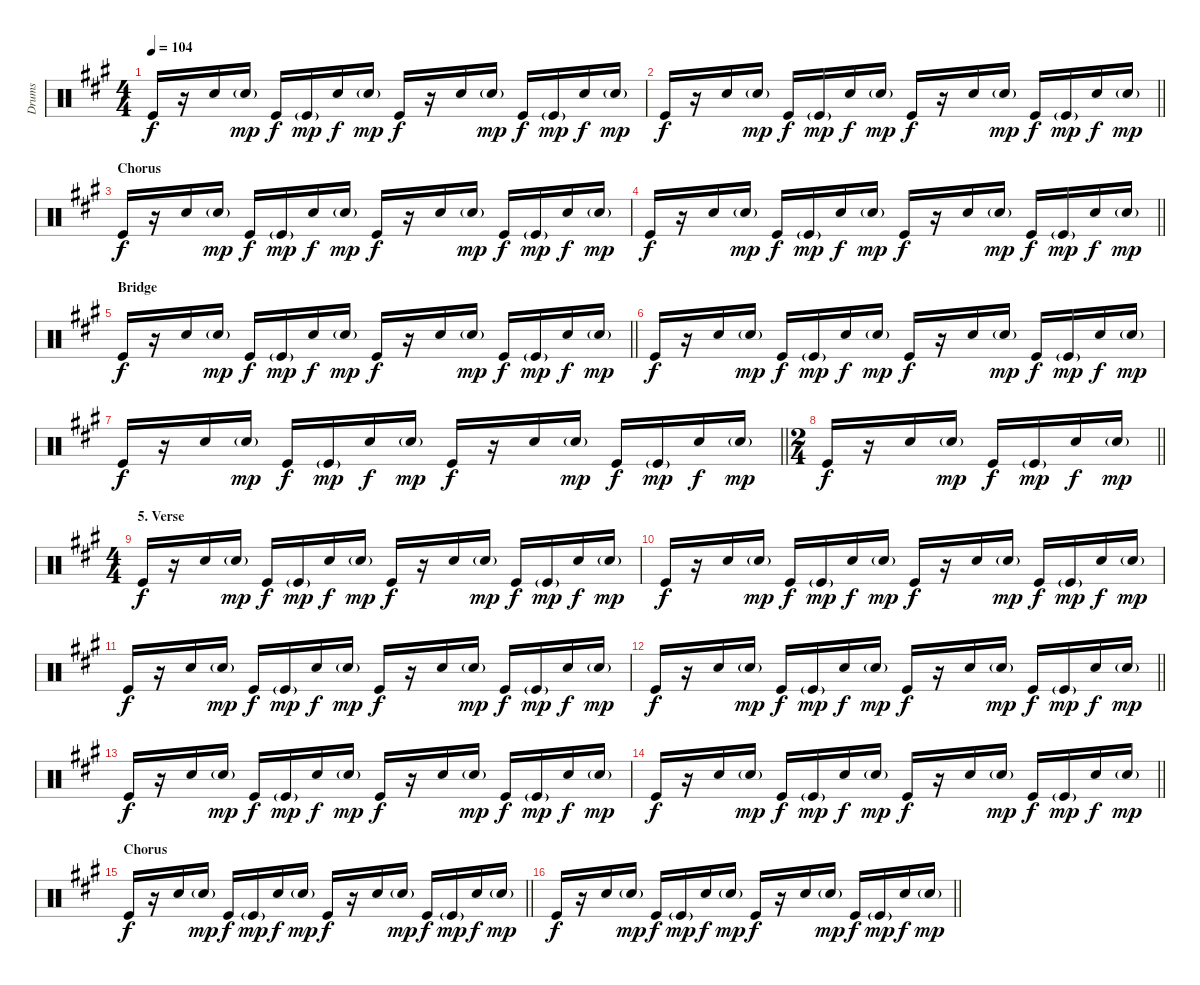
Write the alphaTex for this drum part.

\track ("Drums" "Drums") {instrument percussion}
\staff {score}
\articulation defaults
\ts (4 4)
\tempo 104
\clef neutral
\ks a "Kick (hit)".16{dy f}
r.16 "Electric Snare (hit)".16 "Electric Snare (hit)"{g}.16{dy mp} "Kick (hit)".16{dy f} "Kick (hit)"{g}.16{dy mp} "Electric Snare (hit)".16{dy f} "Electric Snare (hit)"{g}.16{dy mp} "Kick (hit)".16{dy f} r.16 "Electric Snare (hit)".16 "Electric Snare (hit)"{g}.16{dy mp} "Kick (hit)".16{dy f} "Kick (hit)"{g}.16{dy mp} "Electric Snare (hit)".16{dy f} "Electric Snare (hit)"{g}.16{dy mp} |
\barLineRight lightlight "Kick (hit)".16{dy f}
r.16 "Electric Snare (hit)".16 "Electric Snare (hit)"{g}.16{dy mp} "Kick (hit)".16{dy f} "Kick (hit)"{g}.16{dy mp} "Electric Snare (hit)".16{dy f} "Electric Snare (hit)"{g}.16{dy mp} "Kick (hit)".16{dy f} r.16 "Electric Snare (hit)".16 "Electric Snare (hit)"{g}.16{dy mp} "Kick (hit)".16{dy f} "Kick (hit)"{g}.16{dy mp} "Electric Snare (hit)".16{dy f} "Electric Snare (hit)"{g}.16{dy mp} |
\section ("" "Chorus")
"Kick (hit)".16{dy f} r.16 "Electric Snare (hit)".16 "Electric Snare (hit)"{g}.16{dy mp} "Kick (hit)".16{dy f} "Kick (hit)"{g}.16{dy mp} "Electric Snare (hit)".16{dy f} "Electric Snare (hit)"{g}.16{dy mp} "Kick (hit)".16{dy f} r.16 "Electric Snare (hit)".16 "Electric Snare (hit)"{g}.16{dy mp} "Kick (hit)".16{dy f} "Kick (hit)"{g}.16{dy mp} "Electric Snare (hit)".16{dy f} "Electric Snare (hit)"{g}.16{dy mp} |
\barLineRight lightlight "Kick (hit)".16{dy f}
r.16 "Electric Snare (hit)".16 "Electric Snare (hit)"{g}.16{dy mp} "Kick (hit)".16{dy f} "Kick (hit)"{g}.16{dy mp} "Electric Snare (hit)".16{dy f} "Electric Snare (hit)"{g}.16{dy mp} "Kick (hit)".16{dy f} r.16 "Electric Snare (hit)".16 "Electric Snare (hit)"{g}.16{dy mp} "Kick (hit)".16{dy f} "Kick (hit)"{g}.16{dy mp} "Electric Snare (hit)".16{dy f} "Electric Snare (hit)"{g}.16{dy mp} |
\section ("" "Bridge")
\barLineRight lightlight "Kick (hit)".16{dy f}
r.16 "Electric Snare (hit)".16 "Electric Snare (hit)"{g}.16{dy mp} "Kick (hit)".16{dy f} "Kick (hit)"{g}.16{dy mp} "Electric Snare (hit)".16{dy f} "Electric Snare (hit)"{g}.16{dy mp} "Kick (hit)".16{dy f} r.16 "Electric Snare (hit)".16 "Electric Snare (hit)"{g}.16{dy mp} "Kick (hit)".16{dy f} "Kick (hit)"{g}.16{dy mp} "Electric Snare (hit)".16{dy f} "Electric Snare (hit)"{g}.16{dy mp} |
"Kick (hit)".16{dy f} r.16 "Electric Snare (hit)".16 "Electric Snare (hit)"{g}.16{dy mp} "Kick (hit)".16{dy f} "Kick (hit)"{g}.16{dy mp} "Electric Snare (hit)".16{dy f} "Electric Snare (hit)"{g}.16{dy mp} "Kick (hit)".16{dy f} r.16 "Electric Snare (hit)".16 "Electric Snare (hit)"{g}.16{dy mp} "Kick (hit)".16{dy f} "Kick (hit)"{g}.16{dy mp} "Electric Snare (hit)".16{dy f} "Electric Snare (hit)"{g}.16{dy mp} |
\barLineRight lightlight "Kick (hit)".16{dy f}
r.16 "Electric Snare (hit)".16 "Electric Snare (hit)"{g}.16{dy mp} "Kick (hit)".16{dy f} "Kick (hit)"{g}.16{dy mp} "Electric Snare (hit)".16{dy f} "Electric Snare (hit)"{g}.16{dy mp} "Kick (hit)".16{dy f} r.16 "Electric Snare (hit)".16 "Electric Snare (hit)"{g}.16{dy mp} "Kick (hit)".16{dy f} "Kick (hit)"{g}.16{dy mp} "Electric Snare (hit)".16{dy f} "Electric Snare (hit)"{g}.16{dy mp} |
\ts (2 4)
\barLineRight lightlight "Kick (hit)".16{dy f}
r.16 "Electric Snare (hit)".16 "Electric Snare (hit)"{g}.16{dy mp} "Kick (hit)".16{dy f} "Kick (hit)"{g}.16{dy mp} "Electric Snare (hit)".16{dy f} "Electric Snare (hit)"{g}.16{dy mp} |
\ts (4 4)
\section ("" "5. Verse")
"Kick (hit)".16{dy f} r.16 "Electric Snare (hit)".16 "Electric Snare (hit)"{g}.16{dy mp} "Kick (hit)".16{dy f} "Kick (hit)"{g}.16{dy mp} "Electric Snare (hit)".16{dy f} "Electric Snare (hit)"{g}.16{dy mp} "Kick (hit)".16{dy f} r.16 "Electric Snare (hit)".16 "Electric Snare (hit)"{g}.16{dy mp} "Kick (hit)".16{dy f} "Kick (hit)"{g}.16{dy mp} "Electric Snare (hit)".16{dy f} "Electric Snare (hit)"{g}.16{dy mp} |
"Kick (hit)".16{dy f} r.16 "Electric Snare (hit)".16 "Electric Snare (hit)"{g}.16{dy mp} "Kick (hit)".16{dy f} "Kick (hit)"{g}.16{dy mp} "Electric Snare (hit)".16{dy f} "Electric Snare (hit)"{g}.16{dy mp} "Kick (hit)".16{dy f} r.16 "Electric Snare (hit)".16 "Electric Snare (hit)"{g}.16{dy mp} "Kick (hit)".16{dy f} "Kick (hit)"{g}.16{dy mp} "Electric Snare (hit)".16{dy f} "Electric Snare (hit)"{g}.16{dy mp} |
"Kick (hit)".16{dy f} r.16 "Electric Snare (hit)".16 "Electric Snare (hit)"{g}.16{dy mp} "Kick (hit)".16{dy f} "Kick (hit)"{g}.16{dy mp} "Electric Snare (hit)".16{dy f} "Electric Snare (hit)"{g}.16{dy mp} "Kick (hit)".16{dy f} r.16 "Electric Snare (hit)".16 "Electric Snare (hit)"{g}.16{dy mp} "Kick (hit)".16{dy f} "Kick (hit)"{g}.16{dy mp} "Electric Snare (hit)".16{dy f} "Electric Snare (hit)"{g}.16{dy mp} |
\barLineRight lightlight "Kick (hit)".16{dy f}
r.16 "Electric Snare (hit)".16 "Electric Snare (hit)"{g}.16{dy mp} "Kick (hit)".16{dy f} "Kick (hit)"{g}.16{dy mp} "Electric Snare (hit)".16{dy f} "Electric Snare (hit)"{g}.16{dy mp} "Kick (hit)".16{dy f} r.16 "Electric Snare (hit)".16 "Electric Snare (hit)"{g}.16{dy mp} "Kick (hit)".16{dy f} "Kick (hit)"{g}.16{dy mp} "Electric Snare (hit)".16{dy f} "Electric Snare (hit)"{g}.16{dy mp} |
"Kick (hit)".16{dy f} r.16 "Electric Snare (hit)".16 "Electric Snare (hit)"{g}.16{dy mp} "Kick (hit)".16{dy f} "Kick (hit)"{g}.16{dy mp} "Electric Snare (hit)".16{dy f} "Electric Snare (hit)"{g}.16{dy mp} "Kick (hit)".16{dy f} r.16 "Electric Snare (hit)".16 "Electric Snare (hit)"{g}.16{dy mp} "Kick (hit)".16{dy f} "Kick (hit)"{g}.16{dy mp} "Electric Snare (hit)".16{dy f} "Electric Snare (hit)"{g}.16{dy mp} |
\barLineRight lightlight "Kick (hit)".16{dy f}
r.16 "Electric Snare (hit)".16 "Electric Snare (hit)"{g}.16{dy mp} "Kick (hit)".16{dy f} "Kick (hit)"{g}.16{dy mp} "Electric Snare (hit)".16{dy f} "Electric Snare (hit)"{g}.16{dy mp} "Kick (hit)".16{dy f} r.16 "Electric Snare (hit)".16 "Electric Snare (hit)"{g}.16{dy mp} "Kick (hit)".16{dy f} "Kick (hit)"{g}.16{dy mp} "Electric Snare (hit)".16{dy f} "Electric Snare (hit)"{g}.16{dy mp} |
\section ("" "Chorus")
\barLineRight lightlight "Kick (hit)".16{dy f}
r.16 "Electric Snare (hit)".16 "Electric Snare (hit)"{g}.16{dy mp} "Kick (hit)".16{dy f} "Kick (hit)"{g}.16{dy mp} "Electric Snare (hit)".16{dy f} "Electric Snare (hit)"{g}.16{dy mp} "Kick (hit)".16{dy f} r.16 "Electric Snare (hit)".16 "Electric Snare (hit)"{g}.16{dy mp} "Kick (hit)".16{dy f} "Kick (hit)"{g}.16{dy mp} "Electric Snare (hit)".16{dy f} "Electric Snare (hit)"{g}.16{dy mp} |
\barLineRight lightlight "Kick (hit)".16{dy f}
r.16 "Electric Snare (hit)".16 "Electric Snare (hit)"{g}.16{dy mp} "Kick (hit)".16{dy f} "Kick (hit)"{g}.16{dy mp} "Electric Snare (hit)".16{dy f} "Electric Snare (hit)"{g}.16{dy mp} "Kick (hit)".16{dy f} r.16 "Electric Snare (hit)".16 "Electric Snare (hit)"{g}.16{dy mp} "Kick (hit)".16{dy f} "Kick (hit)"{g}.16{dy mp} "Electric Snare (hit)".16{dy f} "Electric Snare (hit)"{g}.16{dy mp}
